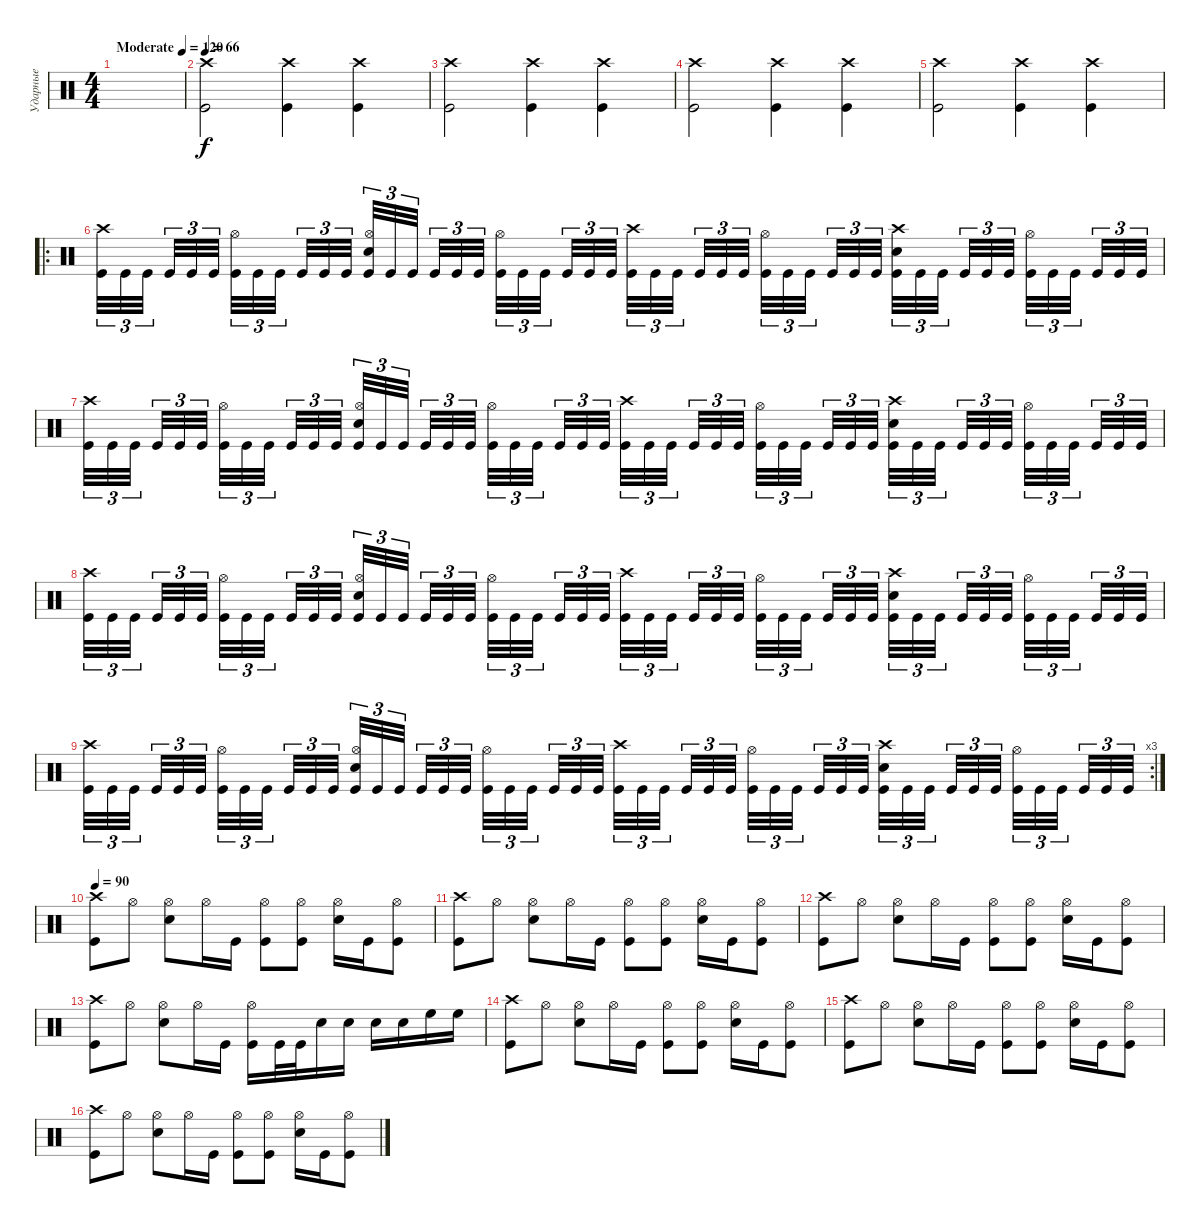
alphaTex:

\track ("Ударные" "Ударные") {instrument percussion}
\staff {score}
\articulation defaults
\ts (4 4)
\tempo (120 "Moderate")
\clef neutral
\ks c
|
\tempo 66
("Crash high (hit)" "Kick (hit)").2 ("Crash high (hit)" "Kick (hit)").4 ("Kick (hit)" "Crash high (hit)").4 |
("Crash high (hit)" "Kick (hit)").2 ("Crash high (hit)" "Kick (hit)").4 ("Kick (hit)" "Crash high (hit)").4 |
("Crash high (hit)" "Kick (hit)").2 ("Crash high (hit)" "Kick (hit)").4 ("Kick (hit)" "Crash high (hit)").4 |
("Crash high (hit)" "Kick (hit)").2 ("Crash high (hit)" "Kick (hit)").4 ("Kick (hit)" "Crash high (hit)").4 |
\ro
("Kick (hit)" "Crash high (hit)").32{tu (3 2)} "Kick (hit)".32{tu (3 2)} "Kick (hit)".32{tu (3 2) beam splitsecondary} "Kick (hit)".32{tu (3 2)} "Kick (hit)".32{tu (3 2)} "Kick (hit)".32{tu (3 2) beam splitsecondary} ("Kick (hit)" "Hi-Hat (open)").32{tu (3 2)} "Kick (hit)".32{tu (3 2)} "Kick (hit)".32{tu (3 2) beam splitsecondary} "Kick (hit)".32{tu (3 2)} "Kick (hit)".32{tu (3 2)} "Kick (hit)".32{tu (3 2)} ("Kick (hit)" "Hi-Hat (open)" "Snare (hit) 2").32{tu (3 2)} "Kick (hit)".32{tu (3 2)} "Kick (hit)".32{tu (3 2) beam splitsecondary} "Kick (hit)".32{tu (3 2)} "Kick (hit)".32{tu (3 2)} "Kick (hit)".32{tu (3 2) beam splitsecondary} ("Kick (hit)" "Hi-Hat (open)").32{tu (3 2)} "Kick (hit)".32{tu (3 2)} "Kick (hit)".32{tu (3 2) beam splitsecondary} "Kick (hit)".32{tu (3 2)} "Kick (hit)".32{tu (3 2)} "Kick (hit)".32{tu (3 2)} ("Kick (hit)" "Crash high (hit)").32{tu (3 2)} "Kick (hit)".32{tu (3 2)} "Kick (hit)".32{tu (3 2) beam splitsecondary} "Kick (hit)".32{tu (3 2)} "Kick (hit)".32{tu (3 2)} "Kick (hit)".32{tu (3 2) beam splitsecondary} ("Kick (hit)" "Hi-Hat (open)").32{tu (3 2)} "Kick (hit)".32{tu (3 2)} "Kick (hit)".32{tu (3 2) beam splitsecondary} "Kick (hit)".32{tu (3 2)} "Kick (hit)".32{tu (3 2)} "Kick (hit)".32{tu (3 2)} ("Kick (hit)" "Crash high (hit)" "Snare (hit) 2").32{tu (3 2)} "Kick (hit)".32{tu (3 2)} "Kick (hit)".32{tu (3 2) beam splitsecondary} "Kick (hit)".32{tu (3 2)} "Kick (hit)".32{tu (3 2)} "Kick (hit)".32{tu (3 2) beam splitsecondary} ("Kick (hit)" "Hi-Hat (open)").32{tu (3 2)} "Kick (hit)".32{tu (3 2)} "Kick (hit)".32{tu (3 2) beam splitsecondary} "Kick (hit)".32{tu (3 2)} "Kick (hit)".32{tu (3 2)} "Kick (hit)".32{tu (3 2)} |
("Kick (hit)" "Crash high (hit)").32{tu (3 2)} "Kick (hit)".32{tu (3 2)} "Kick (hit)".32{tu (3 2) beam splitsecondary} "Kick (hit)".32{tu (3 2)} "Kick (hit)".32{tu (3 2)} "Kick (hit)".32{tu (3 2) beam splitsecondary} ("Kick (hit)" "Hi-Hat (open)").32{tu (3 2)} "Kick (hit)".32{tu (3 2)} "Kick (hit)".32{tu (3 2) beam splitsecondary} "Kick (hit)".32{tu (3 2)} "Kick (hit)".32{tu (3 2)} "Kick (hit)".32{tu (3 2)} ("Kick (hit)" "Hi-Hat (open)" "Snare (hit) 2").32{tu (3 2)} "Kick (hit)".32{tu (3 2)} "Kick (hit)".32{tu (3 2) beam splitsecondary} "Kick (hit)".32{tu (3 2)} "Kick (hit)".32{tu (3 2)} "Kick (hit)".32{tu (3 2) beam splitsecondary} ("Kick (hit)" "Hi-Hat (open)").32{tu (3 2)} "Kick (hit)".32{tu (3 2)} "Kick (hit)".32{tu (3 2) beam splitsecondary} "Kick (hit)".32{tu (3 2)} "Kick (hit)".32{tu (3 2)} "Kick (hit)".32{tu (3 2)} ("Kick (hit)" "Crash high (hit)").32{tu (3 2)} "Kick (hit)".32{tu (3 2)} "Kick (hit)".32{tu (3 2) beam splitsecondary} "Kick (hit)".32{tu (3 2)} "Kick (hit)".32{tu (3 2)} "Kick (hit)".32{tu (3 2) beam splitsecondary} ("Kick (hit)" "Hi-Hat (open)").32{tu (3 2)} "Kick (hit)".32{tu (3 2)} "Kick (hit)".32{tu (3 2) beam splitsecondary} "Kick (hit)".32{tu (3 2)} "Kick (hit)".32{tu (3 2)} "Kick (hit)".32{tu (3 2)} ("Kick (hit)" "Crash high (hit)" "Snare (hit) 2").32{tu (3 2)} "Kick (hit)".32{tu (3 2)} "Kick (hit)".32{tu (3 2) beam splitsecondary} "Kick (hit)".32{tu (3 2)} "Kick (hit)".32{tu (3 2)} "Kick (hit)".32{tu (3 2) beam splitsecondary} ("Kick (hit)" "Hi-Hat (open)").32{tu (3 2)} "Kick (hit)".32{tu (3 2)} "Kick (hit)".32{tu (3 2) beam splitsecondary} "Kick (hit)".32{tu (3 2)} "Kick (hit)".32{tu (3 2)} "Kick (hit)".32{tu (3 2)} |
("Kick (hit)" "Crash high (hit)").32{tu (3 2)} "Kick (hit)".32{tu (3 2)} "Kick (hit)".32{tu (3 2) beam splitsecondary} "Kick (hit)".32{tu (3 2)} "Kick (hit)".32{tu (3 2)} "Kick (hit)".32{tu (3 2) beam splitsecondary} ("Kick (hit)" "Hi-Hat (open)").32{tu (3 2)} "Kick (hit)".32{tu (3 2)} "Kick (hit)".32{tu (3 2) beam splitsecondary} "Kick (hit)".32{tu (3 2)} "Kick (hit)".32{tu (3 2)} "Kick (hit)".32{tu (3 2)} ("Kick (hit)" "Hi-Hat (open)" "Snare (hit) 2").32{tu (3 2)} "Kick (hit)".32{tu (3 2)} "Kick (hit)".32{tu (3 2) beam splitsecondary} "Kick (hit)".32{tu (3 2)} "Kick (hit)".32{tu (3 2)} "Kick (hit)".32{tu (3 2) beam splitsecondary} ("Kick (hit)" "Hi-Hat (open)").32{tu (3 2)} "Kick (hit)".32{tu (3 2)} "Kick (hit)".32{tu (3 2) beam splitsecondary} "Kick (hit)".32{tu (3 2)} "Kick (hit)".32{tu (3 2)} "Kick (hit)".32{tu (3 2)} ("Kick (hit)" "Crash high (hit)").32{tu (3 2)} "Kick (hit)".32{tu (3 2)} "Kick (hit)".32{tu (3 2) beam splitsecondary} "Kick (hit)".32{tu (3 2)} "Kick (hit)".32{tu (3 2)} "Kick (hit)".32{tu (3 2) beam splitsecondary} ("Kick (hit)" "Hi-Hat (open)").32{tu (3 2)} "Kick (hit)".32{tu (3 2)} "Kick (hit)".32{tu (3 2) beam splitsecondary} "Kick (hit)".32{tu (3 2)} "Kick (hit)".32{tu (3 2)} "Kick (hit)".32{tu (3 2)} ("Kick (hit)" "Crash high (hit)" "Snare (hit) 2").32{tu (3 2)} "Kick (hit)".32{tu (3 2)} "Kick (hit)".32{tu (3 2) beam splitsecondary} "Kick (hit)".32{tu (3 2)} "Kick (hit)".32{tu (3 2)} "Kick (hit)".32{tu (3 2) beam splitsecondary} ("Kick (hit)" "Hi-Hat (open)").32{tu (3 2)} "Kick (hit)".32{tu (3 2)} "Kick (hit)".32{tu (3 2) beam splitsecondary} "Kick (hit)".32{tu (3 2)} "Kick (hit)".32{tu (3 2)} "Kick (hit)".32{tu (3 2)} |
\rc 3
("Kick (hit)" "Crash high (hit)").32{tu (3 2)} "Kick (hit)".32{tu (3 2)} "Kick (hit)".32{tu (3 2) beam splitsecondary} "Kick (hit)".32{tu (3 2)} "Kick (hit)".32{tu (3 2)} "Kick (hit)".32{tu (3 2) beam splitsecondary} ("Kick (hit)" "Hi-Hat (open)").32{tu (3 2)} "Kick (hit)".32{tu (3 2)} "Kick (hit)".32{tu (3 2) beam splitsecondary} "Kick (hit)".32{tu (3 2)} "Kick (hit)".32{tu (3 2)} "Kick (hit)".32{tu (3 2)} ("Kick (hit)" "Hi-Hat (open)" "Snare (hit) 2").32{tu (3 2)} "Kick (hit)".32{tu (3 2)} "Kick (hit)".32{tu (3 2) beam splitsecondary} "Kick (hit)".32{tu (3 2)} "Kick (hit)".32{tu (3 2)} "Kick (hit)".32{tu (3 2) beam splitsecondary} ("Kick (hit)" "Hi-Hat (open)").32{tu (3 2)} "Kick (hit)".32{tu (3 2)} "Kick (hit)".32{tu (3 2) beam splitsecondary} "Kick (hit)".32{tu (3 2)} "Kick (hit)".32{tu (3 2)} "Kick (hit)".32{tu (3 2)} ("Kick (hit)" "Crash high (hit)").32{tu (3 2)} "Kick (hit)".32{tu (3 2)} "Kick (hit)".32{tu (3 2) beam splitsecondary} "Kick (hit)".32{tu (3 2)} "Kick (hit)".32{tu (3 2)} "Kick (hit)".32{tu (3 2) beam splitsecondary} ("Kick (hit)" "Hi-Hat (open)").32{tu (3 2)} "Kick (hit)".32{tu (3 2)} "Kick (hit)".32{tu (3 2) beam splitsecondary} "Kick (hit)".32{tu (3 2)} "Kick (hit)".32{tu (3 2)} "Kick (hit)".32{tu (3 2)} ("Kick (hit)" "Crash high (hit)" "Snare (hit) 2").32{tu (3 2)} "Kick (hit)".32{tu (3 2)} "Kick (hit)".32{tu (3 2) beam splitsecondary} "Kick (hit)".32{tu (3 2)} "Kick (hit)".32{tu (3 2)} "Kick (hit)".32{tu (3 2) beam splitsecondary} ("Kick (hit)" "Hi-Hat (open)").32{tu (3 2)} "Kick (hit)".32{tu (3 2)} "Kick (hit)".32{tu (3 2) beam splitsecondary} "Kick (hit)".32{tu (3 2)} "Kick (hit)".32{tu (3 2)} "Kick (hit)".32{tu (3 2)} |
\tempo 90
("Crash high (hit)" "Kick (hit)").8 "Hi-Hat (open)".8 ("Hi-Hat (open)" "Snare (hit) 2").8 "Hi-Hat (open)".16 "Kick (hit)".16 ("Hi-Hat (open)" "Kick (hit)").8 ("Kick (hit)" "Hi-Hat (open)").8 ("Snare (hit) 2" "Hi-Hat (open)").16 "Kick (hit)".16 ("Hi-Hat (open)" "Kick (hit)").8 |
("Crash high (hit)" "Kick (hit)").8 "Hi-Hat (open)".8 ("Hi-Hat (open)" "Snare (hit) 2").8 "Hi-Hat (open)".16 "Kick (hit)".16 ("Hi-Hat (open)" "Kick (hit)").8 ("Kick (hit)" "Hi-Hat (open)").8 ("Snare (hit) 2" "Hi-Hat (open)").16 "Kick (hit)".16 ("Hi-Hat (open)" "Kick (hit)").8 |
("Crash high (hit)" "Kick (hit)").8 "Hi-Hat (open)".8 ("Hi-Hat (open)" "Snare (hit) 2").8 "Hi-Hat (open)".16 "Kick (hit)".16 ("Hi-Hat (open)" "Kick (hit)").8 ("Kick (hit)" "Hi-Hat (open)").8 ("Snare (hit) 2" "Hi-Hat (open)").16 "Kick (hit)".16 ("Hi-Hat (open)" "Kick (hit)").8 |
("Crash high (hit)" "Kick (hit)").8 "Hi-Hat (open)".8 ("Hi-Hat (open)" "Snare (hit) 2").8 "Hi-Hat (open)".16 "Kick (hit)".16 ("Hi-Hat (open)" "Kick (hit)").16 "Kick (hit)".32 "Kick (hit)".32 "Snare (hit) 2".16 "Snare (hit) 2".16 "Snare (hit) 2".16 "Snare (hit) 2".16 "High Floor Tom (hit)".16 "High Floor Tom (hit)".16 |
("Crash high (hit)" "Kick (hit)").8 "Hi-Hat (open)".8 ("Hi-Hat (open)" "Snare (hit) 2").8 "Hi-Hat (open)".16 "Kick (hit)".16 ("Hi-Hat (open)" "Kick (hit)").8 ("Kick (hit)" "Hi-Hat (open)").8 ("Snare (hit) 2" "Hi-Hat (open)").16 "Kick (hit)".16 ("Hi-Hat (open)" "Kick (hit)").8 |
("Crash high (hit)" "Kick (hit)").8 "Hi-Hat (open)".8 ("Hi-Hat (open)" "Snare (hit) 2").8 "Hi-Hat (open)".16 "Kick (hit)".16 ("Hi-Hat (open)" "Kick (hit)").8 ("Kick (hit)" "Hi-Hat (open)").8 ("Snare (hit) 2" "Hi-Hat (open)").16 "Kick (hit)".16 ("Hi-Hat (open)" "Kick (hit)").8 |
("Crash high (hit)" "Kick (hit)").8 "Hi-Hat (open)".8 ("Hi-Hat (open)" "Snare (hit) 2").8 "Hi-Hat (open)".16 "Kick (hit)".16 ("Hi-Hat (open)" "Kick (hit)").8 ("Kick (hit)" "Hi-Hat (open)").8 ("Snare (hit) 2" "Hi-Hat (open)").16 "Kick (hit)".16 ("Hi-Hat (open)" "Kick (hit)").8
